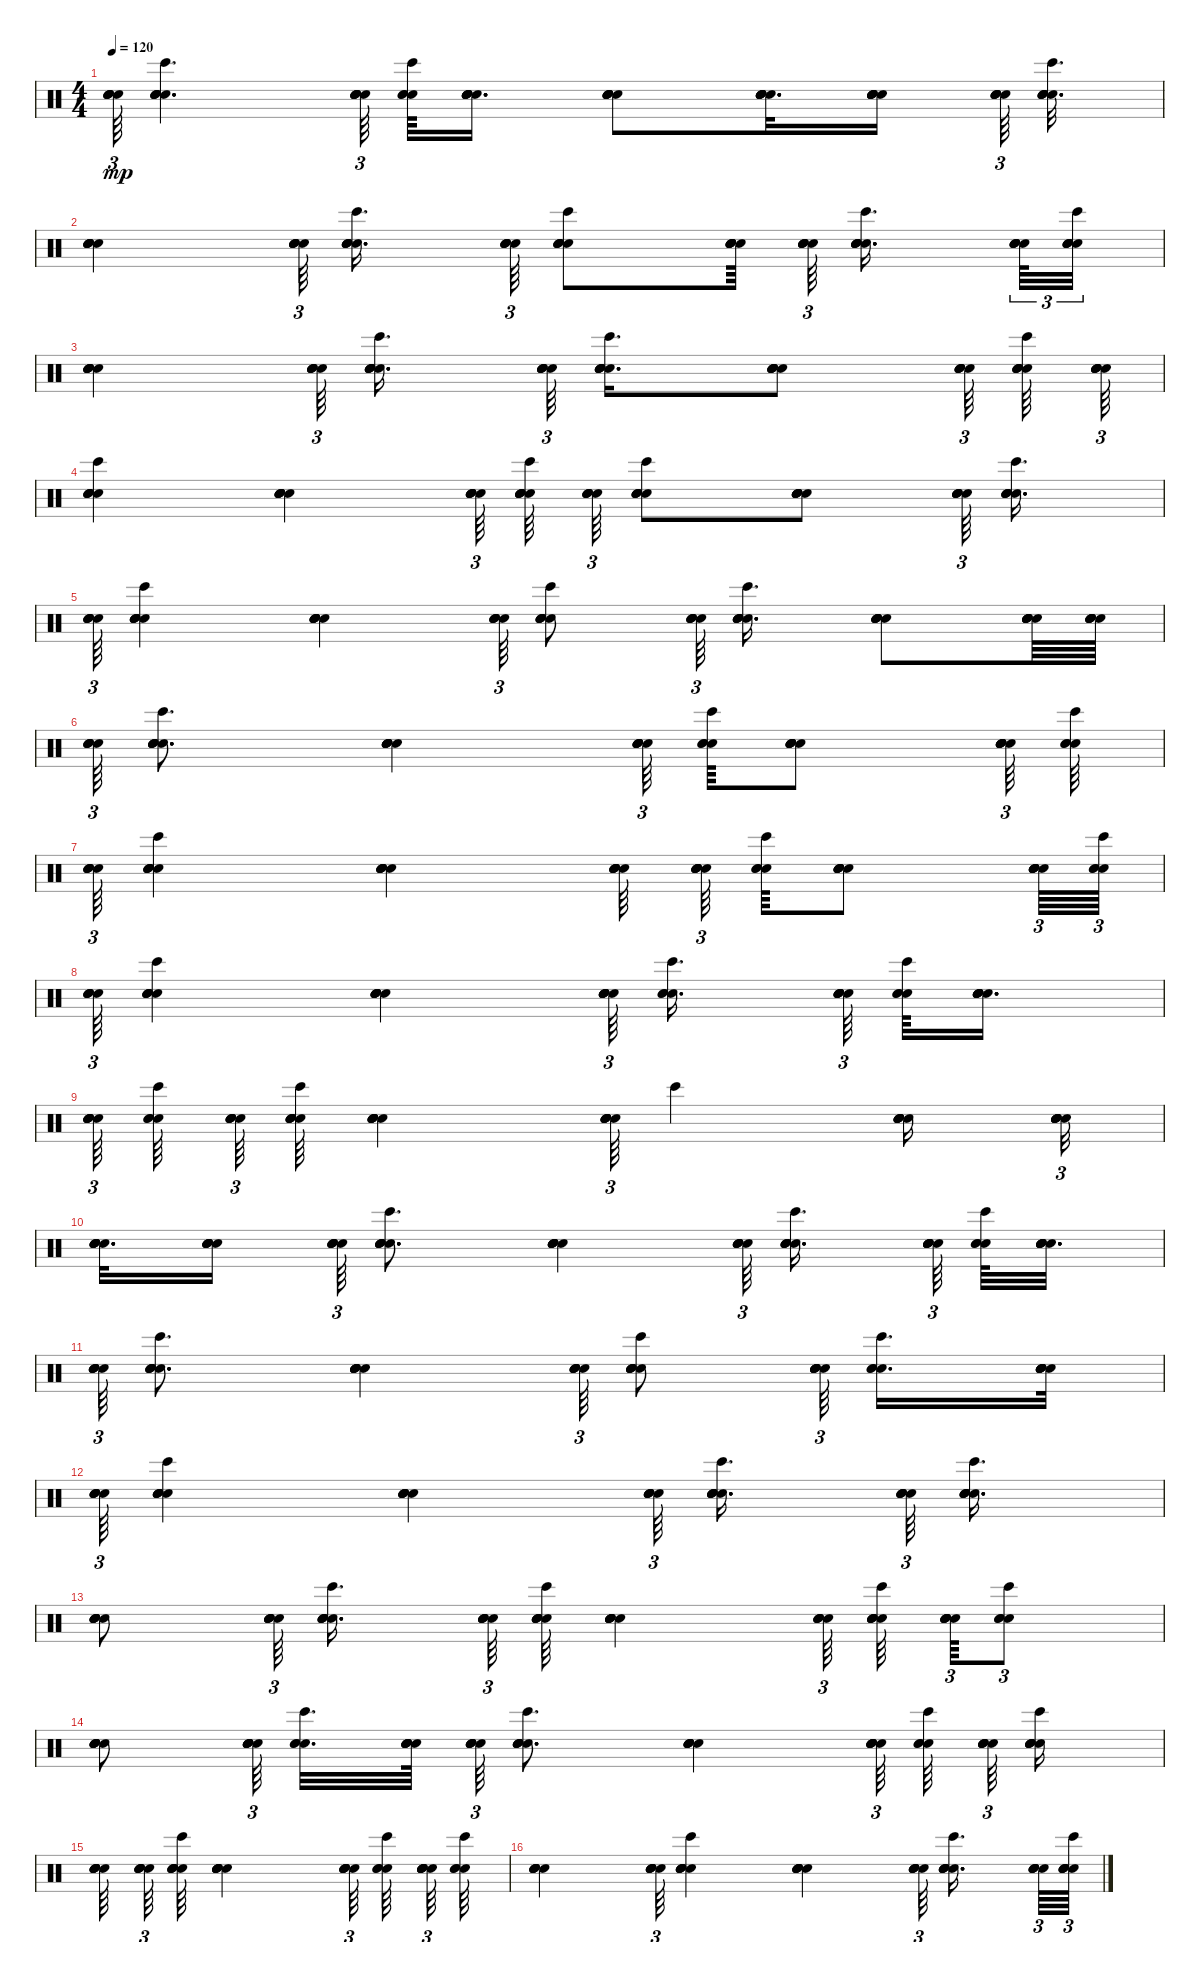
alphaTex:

\track "" {instrument percussion}
\staff {score}
\articulation defaults
\ts (4 4)
\tempo 120
\clef neutral
\ks c
("Snare (hit)" "Snare (hit)" "Snare (hit)" "Snare (hit)" "Snare (hit)").64{tu (3 2) dy mp} ("Snare (hit)" "Snare (hit)" "Snare (hit)" "Snare (hit)" "Snare (hit)" "Bongo High (hit)").4{d} ("Snare (hit)" "Snare (hit)" "Snare (hit)" "Snare (hit)" "Snare (hit)" "Snare (hit)").64{tu (3 2)} ("Snare (hit)" "Snare (hit)" "Bongo High (hit)" "Snare (hit)").64 ("Snare (hit)" "Snare (hit)" "Snare (hit)" "Snare (hit)" "Snare (hit)" "Snare (hit)").16{d} ("Snare (hit)" "Snare (hit)" "Snare (hit)" "Snare (hit)" "Snare (hit)" "Snare (hit)").8 ("Snare (hit)" "Snare (hit)" "Snare (hit)" "Snare (hit)" "Snare (hit)" "Snare (hit)").32{d} ("Snare (hit)" "Snare (hit)" "Snare (hit)" "Snare (hit)" "Snare (hit)" "Snare (hit)").16 ("Snare (hit)" "Snare (hit)" "Snare (hit)" "Snare (hit)" "Snare (hit)").64{tu (3 2)} ("Snare (hit)" "Snare (hit)" "Snare (hit)" "Snare (hit)" "Snare (hit)" "Bongo High (hit)").32{d} |
("Snare (hit)" "Snare (hit)" "Snare (hit)" "Snare (hit)" "Snare (hit)" "Snare (hit)").4 ("Snare (hit)" "Snare (hit)" "Snare (hit)" "Snare (hit)" "Snare (hit)").64{tu (3 2)} ("Snare (hit)" "Snare (hit)" "Snare (hit)" "Snare (hit)" "Bongo High (hit)" "Snare (hit)").16{d} ("Snare (hit)" "Snare (hit)" "Snare (hit)" "Snare (hit)" "Snare (hit)").64{tu (3 2)} ("Snare (hit)" "Snare (hit)" "Snare (hit)" "Snare (hit)" "Bongo High (hit)" "Snare (hit)").8 ("Snare (hit)" "Snare (hit)" "Snare (hit)" "Snare (hit)" "Snare (hit)" "Snare (hit)").64 ("Snare (hit)" "Snare (hit)" "Snare (hit)" "Snare (hit)" "Snare (hit)").64{tu (3 2)} ("Snare (hit)" "Snare (hit)" "Snare (hit)" "Snare (hit)" "Bongo High (hit)" "Snare (hit)").16{d} ("Snare (hit)" "Snare (hit)" "Snare (hit)" "Snare (hit)" "Snare (hit)").64{tu (3 2)} ("Snare (hit)" "Snare (hit)" "Snare (hit)" "Snare (hit)" "Bongo High (hit)" "Snare (hit)").32{tu (3 2)} |
("Snare (hit)" "Snare (hit)" "Snare (hit)" "Snare (hit)" "Snare (hit)" "Snare (hit)").4 ("Snare (hit)" "Snare (hit)" "Snare (hit)" "Snare (hit)" "Snare (hit)").64{tu (3 2)} ("Snare (hit)" "Snare (hit)" "Snare (hit)" "Snare (hit)" "Bongo High (hit)" "Snare (hit)").16{d} ("Snare (hit)" "Snare (hit)" "Snare (hit)" "Snare (hit)" "Snare (hit)").64{tu (3 2)} ("Snare (hit)" "Snare (hit)" "Snare (hit)" "Snare (hit)" "Bongo High (hit)" "Snare (hit)").16{d} ("Snare (hit)" "Snare (hit)" "Snare (hit)" "Snare (hit)" "Snare (hit)" "Snare (hit)").8 ("Snare (hit)" "Snare (hit)" "Snare (hit)" "Snare (hit)" "Snare (hit)").64{tu (3 2)} ("Snare (hit)" "Snare (hit)" "Snare (hit)" "Bongo High (hit)" "Snare (hit)" "Snare (hit)").64 ("Snare (hit)" "Snare (hit)" "Snare (hit)" "Snare (hit)" "Snare (hit)").64{tu (3 2)} |
("Snare (hit)" "Snare (hit)" "Snare (hit)" "Bongo High (hit)" "Snare (hit)" "Snare (hit)").4 ("Snare (hit)" "Snare (hit)" "Snare (hit)" "Snare (hit)" "Snare (hit)" "Snare (hit)").4 ("Snare (hit)" "Snare (hit)" "Snare (hit)" "Snare (hit)" "Snare (hit)").64{tu (3 2)} ("Snare (hit)" "Snare (hit)" "Snare (hit)" "Snare (hit)" "Bongo High (hit)" "Snare (hit)").64 ("Snare (hit)" "Snare (hit)" "Snare (hit)" "Snare (hit)" "Snare (hit)").64{tu (3 2)} ("Snare (hit)" "Snare (hit)" "Snare (hit)" "Snare (hit)" "Snare (hit)" "Bongo High (hit)").8 ("Snare (hit)" "Snare (hit)" "Snare (hit)" "Snare (hit)" "Snare (hit)" "Snare (hit)").8 ("Snare (hit)" "Snare (hit)" "Snare (hit)" "Snare (hit)" "Snare (hit)").64{tu (3 2)} ("Snare (hit)" "Snare (hit)" "Snare (hit)" "Bongo High (hit)" "Snare (hit)" "Snare (hit)").16{d} |
("Snare (hit)" "Snare (hit)" "Snare (hit)" "Snare (hit)" "Snare (hit)").64{tu (3 2)} ("Snare (hit)" "Snare (hit)" "Snare (hit)" "Bongo High (hit)" "Snare (hit)" "Snare (hit)").4 ("Snare (hit)" "Snare (hit)" "Snare (hit)" "Snare (hit)" "Snare (hit)" "Snare (hit)").4 ("Snare (hit)" "Snare (hit)" "Snare (hit)" "Snare (hit)" "Snare (hit)").64{tu (3 2)} ("Snare (hit)" "Snare (hit)" "Snare (hit)" "Snare (hit)" "Bongo High (hit)" "Snare (hit)").8 ("Snare (hit)" "Snare (hit)" "Snare (hit)" "Snare (hit)" "Snare (hit)").64{tu (3 2)} ("Snare (hit)" "Snare (hit)" "Snare (hit)" "Snare (hit)" "Snare (hit)" "Bongo High (hit)").16{d} ("Snare (hit)" "Snare (hit)" "Snare (hit)" "Snare (hit)" "Snare (hit)" "Snare (hit)").8 ("Snare (hit)" "Snare (hit)" "Snare (hit)" "Snare (hit)" "Snare (hit)" "Snare (hit)").64 ("Snare (hit)" "Snare (hit)" "Snare (hit)" "Snare (hit)" "Snare (hit)" "Snare (hit)").64 |
("Snare (hit)" "Snare (hit)" "Snare (hit)" "Snare (hit)" "Snare (hit)").64{tu (3 2)} ("Snare (hit)" "Snare (hit)" "Snare (hit)" "Snare (hit)" "Snare (hit)" "Bongo High (hit)").8{d} ("Snare (hit)" "Snare (hit)" "Snare (hit)" "Snare (hit)" "Snare (hit)" "Snare (hit)").4 ("Snare (hit)" "Snare (hit)" "Snare (hit)" "Snare (hit)" "Snare (hit)" "Snare (hit)").64{tu (3 2)} ("Snare (hit)" "Snare (hit)" "Bongo High (hit)" "Snare (hit)").64 ("Snare (hit)" "Snare (hit)" "Snare (hit)" "Snare (hit)" "Snare (hit)" "Snare (hit)").8 ("Snare (hit)" "Snare (hit)" "Snare (hit)" "Snare (hit)" "Snare (hit)" "Snare (hit)").64{tu (3 2)} ("Snare (hit)" "Snare (hit)" "Bongo High (hit)" "Snare (hit)").64 |
("Snare (hit)" "Snare (hit)" "Snare (hit)" "Snare (hit)" "Snare (hit)").64{tu (3 2)} ("Snare (hit)" "Snare (hit)" "Snare (hit)" "Snare (hit)" "Bongo High (hit)" "Snare (hit)").4 ("Snare (hit)" "Snare (hit)" "Snare (hit)" "Snare (hit)" "Snare (hit)" "Snare (hit)").4 ("Snare (hit)" "Snare (hit)" "Snare (hit)" "Snare (hit)" "Snare (hit)" "Snare (hit)").64 ("Snare (hit)" "Snare (hit)" "Snare (hit)" "Snare (hit)" "Snare (hit)" "Snare (hit)").64{tu (3 2)} ("Snare (hit)" "Snare (hit)" "Bongo High (hit)" "Snare (hit)").64 ("Snare (hit)" "Snare (hit)" "Snare (hit)" "Snare (hit)" "Snare (hit)" "Snare (hit)").8 ("Snare (hit)" "Snare (hit)" "Snare (hit)" "Snare (hit)" "Snare (hit)" "Snare (hit)").64{tu (3 2)} ("Snare (hit)" "Bongo High (hit)" "Snare (hit)" "Snare (hit)").64{tu (3 2)} |
("Snare (hit)" "Snare (hit)" "Snare (hit)" "Snare (hit)" "Snare (hit)").64{tu (3 2)} ("Snare (hit)" "Snare (hit)" "Snare (hit)" "Snare (hit)" "Bongo High (hit)" "Snare (hit)").4 ("Snare (hit)" "Snare (hit)" "Snare (hit)" "Snare (hit)" "Snare (hit)" "Snare (hit)").4 ("Snare (hit)" "Snare (hit)" "Snare (hit)" "Snare (hit)" "Snare (hit)" "Snare (hit)").64{tu (3 2)} ("Snare (hit)" "Snare (hit)" "Bongo High (hit)" "Snare (hit)").16{d} ("Snare (hit)" "Snare (hit)" "Snare (hit)" "Snare (hit)" "Snare (hit)" "Snare (hit)").64{tu (3 2)} ("Snare (hit)" "Snare (hit)" "Bongo High (hit)" "Snare (hit)").64 ("Snare (hit)" "Snare (hit)" "Snare (hit)" "Snare (hit)" "Snare (hit)" "Snare (hit)").16{d} |
("Snare (hit)" "Snare (hit)" "Snare (hit)" "Snare (hit)" "Snare (hit)" "Snare (hit)").64{tu (3 2)} ("Snare (hit)" "Snare (hit)" "Bongo High (hit)" "Snare (hit)").64 ("Snare (hit)" "Snare (hit)" "Snare (hit)" "Snare (hit)" "Snare (hit)").64{tu (3 2)} ("Snare (hit)" "Snare (hit)" "Snare (hit)" "Snare (hit)" "Bongo High (hit)" "Snare (hit)").64 ("Snare (hit)" "Snare (hit)" "Snare (hit)" "Snare (hit)" "Snare (hit)" "Snare (hit)").4 ("Snare (hit)" "Snare (hit)" "Snare (hit)" "Snare (hit)" "Snare (hit)" "Snare (hit)").64{tu (3 2)} "Bongo High (hit)".4 ("Snare (hit)" "Snare (hit)" "Snare (hit)" "Snare (hit)" "Snare (hit)" "Snare (hit)").16 ("Snare (hit)" "Snare (hit)" "Snare (hit)" "Snare (hit)" "Snare (hit)" "Snare (hit)").32{tu (3 2)} |
("Snare (hit)" "Snare (hit)" "Snare (hit)" "Snare (hit)" "Snare (hit)" "Snare (hit)").32{d} ("Snare (hit)" "Snare (hit)" "Snare (hit)" "Snare (hit)" "Snare (hit)" "Snare (hit)").16 ("Snare (hit)" "Snare (hit)" "Snare (hit)" "Snare (hit)" "Snare (hit)").64{tu (3 2)} ("Snare (hit)" "Snare (hit)" "Snare (hit)" "Snare (hit)" "Snare (hit)" "Bongo High (hit)").8{d} ("Snare (hit)" "Snare (hit)" "Snare (hit)" "Snare (hit)" "Snare (hit)" "Snare (hit)").4 ("Snare (hit)" "Snare (hit)" "Snare (hit)" "Snare (hit)" "Snare (hit)").64{tu (3 2)} ("Snare (hit)" "Snare (hit)" "Snare (hit)" "Snare (hit)" "Bongo High (hit)" "Snare (hit)").16{d} ("Snare (hit)" "Snare (hit)" "Snare (hit)" "Snare (hit)" "Snare (hit)" "Snare (hit)").64{tu (3 2)} ("Snare (hit)" "Snare (hit)" "Bongo High (hit)" "Snare (hit)").64 ("Snare (hit)" "Snare (hit)" "Snare (hit)" "Snare (hit)" "Snare (hit)" "Snare (hit)").32{d} |
("Snare (hit)" "Snare (hit)" "Snare (hit)" "Snare (hit)" "Snare (hit)").64{tu (3 2)} ("Snare (hit)" "Snare (hit)" "Snare (hit)" "Snare (hit)" "Snare (hit)" "Bongo High (hit)").8{d} ("Snare (hit)" "Snare (hit)" "Snare (hit)" "Snare (hit)" "Snare (hit)" "Snare (hit)").4 ("Snare (hit)" "Snare (hit)" "Snare (hit)" "Snare (hit)" "Snare (hit)").64{tu (3 2)} ("Snare (hit)" "Snare (hit)" "Snare (hit)" "Bongo High (hit)" "Snare (hit)" "Snare (hit)").8 ("Snare (hit)" "Snare (hit)" "Snare (hit)" "Snare (hit)" "Snare (hit)" "Snare (hit)").64{tu (3 2)} ("Snare (hit)" "Snare (hit)" "Bongo High (hit)" "Snare (hit)").16{d} ("Snare (hit)" "Snare (hit)" "Snare (hit)" "Snare (hit)" "Snare (hit)" "Snare (hit)").32 |
("Snare (hit)" "Snare (hit)" "Snare (hit)" "Snare (hit)" "Snare (hit)").64{tu (3 2)} ("Snare (hit)" "Snare (hit)" "Snare (hit)" "Snare (hit)" "Snare (hit)" "Bongo High (hit)").4 ("Snare (hit)" "Snare (hit)" "Snare (hit)" "Snare (hit)" "Snare (hit)" "Snare (hit)").4 ("Snare (hit)" "Snare (hit)" "Snare (hit)" "Snare (hit)" "Snare (hit)").64{tu (3 2)} ("Snare (hit)" "Snare (hit)" "Snare (hit)" "Snare (hit)" "Bongo High (hit)" "Snare (hit)").16{d} ("Snare (hit)" "Snare (hit)" "Snare (hit)" "Snare (hit)" "Snare (hit)").64{tu (3 2)} ("Snare (hit)" "Snare (hit)" "Snare (hit)" "Snare (hit)" "Bongo High (hit)" "Snare (hit)").16{d} |
("Snare (hit)" "Snare (hit)" "Snare (hit)" "Snare (hit)" "Snare (hit)" "Snare (hit)").8 ("Snare (hit)" "Snare (hit)" "Snare (hit)" "Snare (hit)" "Snare (hit)").64{tu (3 2)} ("Snare (hit)" "Snare (hit)" "Snare (hit)" "Snare (hit)" "Snare (hit)" "Bongo High (hit)").16{d} ("Snare (hit)" "Snare (hit)" "Snare (hit)" "Snare (hit)" "Snare (hit)").64{tu (3 2)} ("Snare (hit)" "Snare (hit)" "Snare (hit)" "Snare (hit)" "Bongo High (hit)" "Snare (hit)").64 ("Snare (hit)" "Snare (hit)" "Snare (hit)" "Snare (hit)" "Snare (hit)" "Snare (hit)").4 ("Snare (hit)" "Snare (hit)" "Snare (hit)" "Snare (hit)" "Snare (hit)").64{tu (3 2)} ("Snare (hit)" "Snare (hit)" "Snare (hit)" "Snare (hit)" "Bongo High (hit)" "Snare (hit)").64 ("Snare (hit)" "Snare (hit)" "Snare (hit)" "Snare (hit)" "Snare (hit)" "Snare (hit)").64{tu (3 2)} ("Snare (hit)" "Snare (hit)" "Bongo High (hit)" "Snare (hit)").8{tu (3 2)} |
("Snare (hit)" "Snare (hit)" "Snare (hit)" "Snare (hit)" "Snare (hit)" "Snare (hit)").8 ("Snare (hit)" "Snare (hit)" "Snare (hit)" "Snare (hit)" "Snare (hit)" "Snare (hit)").64{tu (3 2)} ("Snare (hit)" "Snare (hit)" "Bongo High (hit)" "Snare (hit)").32{d} ("Snare (hit)" "Snare (hit)" "Snare (hit)" "Snare (hit)" "Snare (hit)" "Snare (hit)").64 ("Snare (hit)" "Snare (hit)" "Snare (hit)" "Snare (hit)" "Snare (hit)").64{tu (3 2)} ("Snare (hit)" "Snare (hit)" "Snare (hit)" "Snare (hit)" "Snare (hit)" "Bongo High (hit)").8{d} ("Snare (hit)" "Snare (hit)" "Snare (hit)" "Snare (hit)" "Snare (hit)" "Snare (hit)").4 ("Snare (hit)" "Snare (hit)" "Snare (hit)" "Snare (hit)" "Snare (hit)" "Snare (hit)").64{tu (3 2)} ("Snare (hit)" "Snare (hit)" "Bongo High (hit)" "Snare (hit)").64 ("Snare (hit)" "Snare (hit)" "Snare (hit)" "Snare (hit)" "Snare (hit)").64{tu (3 2)} ("Snare (hit)" "Snare (hit)" "Snare (hit)" "Snare (hit)" "Bongo High (hit)" "Snare (hit)").16 |
("Snare (hit)" "Snare (hit)" "Snare (hit)" "Snare (hit)" "Snare (hit)" "Snare (hit)").64 ("Snare (hit)" "Snare (hit)" "Snare (hit)" "Snare (hit)" "Snare (hit)").64{tu (3 2)} ("Snare (hit)" "Snare (hit)" "Snare (hit)" "Snare (hit)" "Bongo High (hit)" "Snare (hit)").64 ("Snare (hit)" "Snare (hit)" "Snare (hit)" "Snare (hit)" "Snare (hit)" "Snare (hit)").4 ("Snare (hit)" "Snare (hit)" "Snare (hit)" "Snare (hit)" "Snare (hit)" "Snare (hit)").64{tu (3 2)} ("Snare (hit)" "Snare (hit)" "Bongo High (hit)" "Snare (hit)").64 ("Snare (hit)" "Snare (hit)" "Snare (hit)" "Snare (hit)" "Snare (hit)" "Snare (hit)").64{tu (3 2)} ("Snare (hit)" "Snare (hit)" "Bongo High (hit)" "Snare (hit)").64 |
("Snare (hit)" "Snare (hit)" "Snare (hit)" "Snare (hit)" "Snare (hit)" "Snare (hit)").4 ("Snare (hit)" "Snare (hit)" "Snare (hit)" "Snare (hit)" "Snare (hit)").64{tu (3 2)} ("Snare (hit)" "Snare (hit)" "Snare (hit)" "Bongo High (hit)" "Snare (hit)" "Snare (hit)").4 ("Snare (hit)" "Snare (hit)" "Snare (hit)" "Snare (hit)" "Snare (hit)" "Snare (hit)").4 ("Snare (hit)" "Snare (hit)" "Snare (hit)" "Snare (hit)" "Snare (hit)").64{tu (3 2)} ("Snare (hit)" "Snare (hit)" "Snare (hit)" "Snare (hit)" "Snare (hit)" "Bongo High (hit)").16{d} ("Snare (hit)" "Snare (hit)" "Snare (hit)" "Snare (hit)" "Snare (hit)").64{tu (3 2)} ("Snare (hit)" "Snare (hit)" "Snare (hit)" "Snare (hit)" "Snare (hit)" "Bongo High (hit)").64{tu (3 2)}
